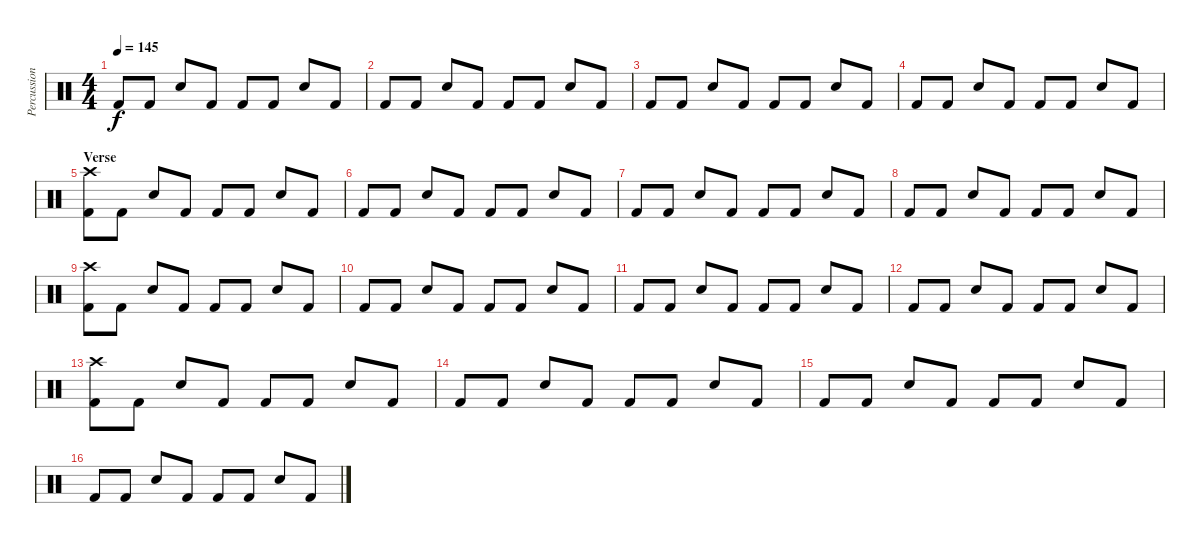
\track ("Percussion" "Percussion") {instrument percussion}
\staff {score}
\articulation defaults
\ts (4 4)
\tempo 145
\clef neutral
\ks c "Kick (hit) 2".8{dy f} "Kick (hit) 2".8 "Electric Snare (hit)".8 "Kick (hit) 2".8 "Kick (hit) 2".8 "Kick (hit) 2".8 "Electric Snare (hit)".8 "Kick (hit) 2".8
|
"Kick (hit) 2".8 "Kick (hit) 2".8 "Electric Snare (hit)".8 "Kick (hit) 2".8 "Kick (hit) 2".8 "Kick (hit) 2".8 "Electric Snare (hit)".8 "Kick (hit) 2".8 |
"Kick (hit) 2".8 "Kick (hit) 2".8 "Electric Snare (hit)".8 "Kick (hit) 2".8 "Kick (hit) 2".8 "Kick (hit) 2".8 "Electric Snare (hit)".8 "Kick (hit) 2".8 |
"Kick (hit) 2".8 "Kick (hit) 2".8 "Electric Snare (hit)".8 "Kick (hit) 2".8 "Kick (hit) 2".8 "Kick (hit) 2".8 "Electric Snare (hit)".8 "Kick (hit) 2".8 |
\section ("" "Verse")
("Crash high (hit)" "Kick (hit) 2").8 "Kick (hit) 2".8 "Electric Snare (hit)".8 "Kick (hit) 2".8 "Kick (hit) 2".8 "Kick (hit) 2".8 "Electric Snare (hit)".8 "Kick (hit) 2".8 |
"Kick (hit) 2".8 "Kick (hit) 2".8 "Electric Snare (hit)".8 "Kick (hit) 2".8 "Kick (hit) 2".8 "Kick (hit) 2".8 "Electric Snare (hit)".8 "Kick (hit) 2".8 |
"Kick (hit) 2".8 "Kick (hit) 2".8 "Electric Snare (hit)".8 "Kick (hit) 2".8 "Kick (hit) 2".8 "Kick (hit) 2".8 "Electric Snare (hit)".8 "Kick (hit) 2".8 |
"Kick (hit) 2".8 "Kick (hit) 2".8 "Electric Snare (hit)".8 "Kick (hit) 2".8 "Kick (hit) 2".8 "Kick (hit) 2".8 "Electric Snare (hit)".8 "Kick (hit) 2".8 |
("Crash high (hit)" "Kick (hit) 2").8 "Kick (hit) 2".8 "Electric Snare (hit)".8 "Kick (hit) 2".8 "Kick (hit) 2".8 "Kick (hit) 2".8 "Electric Snare (hit)".8 "Kick (hit) 2".8 |
"Kick (hit) 2".8 "Kick (hit) 2".8 "Electric Snare (hit)".8 "Kick (hit) 2".8 "Kick (hit) 2".8 "Kick (hit) 2".8 "Electric Snare (hit)".8 "Kick (hit) 2".8 |
"Kick (hit) 2".8 "Kick (hit) 2".8 "Electric Snare (hit)".8 "Kick (hit) 2".8 "Kick (hit) 2".8 "Kick (hit) 2".8 "Electric Snare (hit)".8 "Kick (hit) 2".8 |
"Kick (hit) 2".8 "Kick (hit) 2".8 "Electric Snare (hit)".8 "Kick (hit) 2".8 "Kick (hit) 2".8 "Kick (hit) 2".8 "Electric Snare (hit)".8 "Kick (hit) 2".8 |
("Crash high (hit)" "Kick (hit) 2").8 "Kick (hit) 2".8 "Electric Snare (hit)".8 "Kick (hit) 2".8 "Kick (hit) 2".8 "Kick (hit) 2".8 "Electric Snare (hit)".8 "Kick (hit) 2".8 |
"Kick (hit) 2".8 "Kick (hit) 2".8 "Electric Snare (hit)".8 "Kick (hit) 2".8 "Kick (hit) 2".8 "Kick (hit) 2".8 "Electric Snare (hit)".8 "Kick (hit) 2".8 |
"Kick (hit) 2".8 "Kick (hit) 2".8 "Electric Snare (hit)".8 "Kick (hit) 2".8 "Kick (hit) 2".8 "Kick (hit) 2".8 "Electric Snare (hit)".8 "Kick (hit) 2".8 |
"Kick (hit) 2".8 "Kick (hit) 2".8 "Electric Snare (hit)".8 "Kick (hit) 2".8 "Kick (hit) 2".8 "Kick (hit) 2".8 "Electric Snare (hit)".8 "Kick (hit) 2".8
